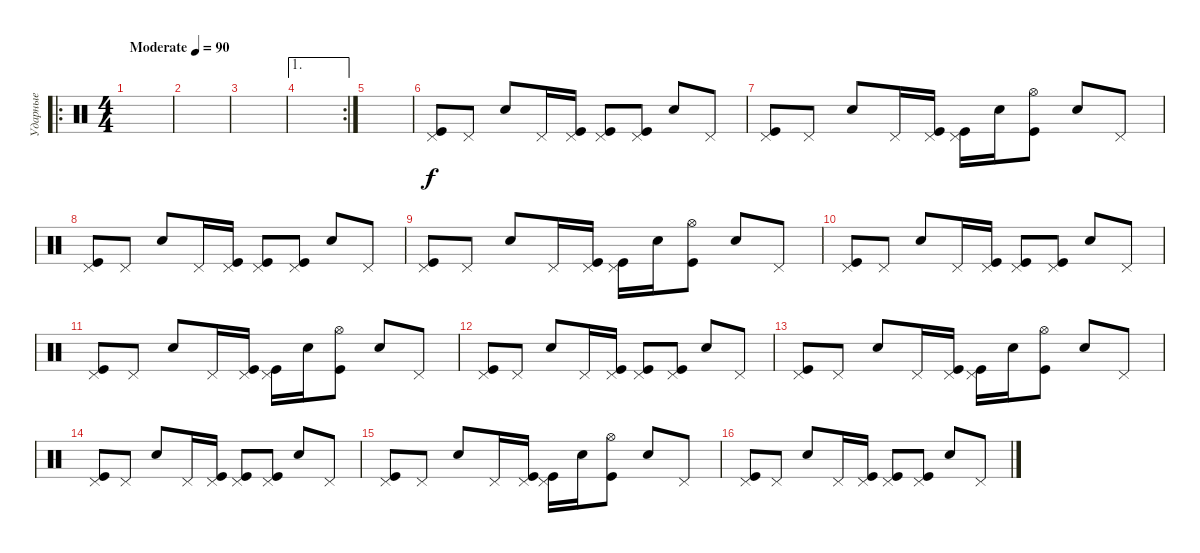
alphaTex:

\track ("Ударные" "Ударные") {instrument percussion}
\staff {score}
\articulation defaults
\ro
\ts (4 4)
\tempo (90 "Moderate")
\clef neutral
\ks c
|
|
|
\ae 1
\rc 2
|
|
("Kick (hit)" "Pedal Hi-Hat (hit)").8 "Pedal Hi-Hat (hit)".8 "Electric Snare (hit)".8 "Pedal Hi-Hat (hit)".16 ("Kick (hit)" "Pedal Hi-Hat (hit)").16 ("Kick (hit)" "Pedal Hi-Hat (hit)").8 ("Kick (hit)" "Pedal Hi-Hat (hit)").8 "Electric Snare (hit)".8 "Pedal Hi-Hat (hit)".8 |
("Kick (hit)" "Pedal Hi-Hat (hit)").8 "Pedal Hi-Hat (hit)".8 "Electric Snare (hit)".8 "Pedal Hi-Hat (hit)".16 ("Kick (hit)" "Pedal Hi-Hat (hit)").16 ("Kick (hit)" "Pedal Hi-Hat (hit)").16 "Electric Snare (hit)".16 ("Kick (hit)" "Hi-Hat (open)").8 "Electric Snare (hit)".8 "Pedal Hi-Hat (hit)".8 |
("Kick (hit)" "Pedal Hi-Hat (hit)").8 "Pedal Hi-Hat (hit)".8 "Electric Snare (hit)".8 "Pedal Hi-Hat (hit)".16 ("Kick (hit)" "Pedal Hi-Hat (hit)").16 ("Kick (hit)" "Pedal Hi-Hat (hit)").8 ("Kick (hit)" "Pedal Hi-Hat (hit)").8 "Electric Snare (hit)".8 "Pedal Hi-Hat (hit)".8 |
("Kick (hit)" "Pedal Hi-Hat (hit)").8 "Pedal Hi-Hat (hit)".8 "Electric Snare (hit)".8 "Pedal Hi-Hat (hit)".16 ("Kick (hit)" "Pedal Hi-Hat (hit)").16 ("Kick (hit)" "Pedal Hi-Hat (hit)").16 "Electric Snare (hit)".16 ("Kick (hit)" "Hi-Hat (open)").8 "Electric Snare (hit)".8 "Pedal Hi-Hat (hit)".8 |
("Kick (hit)" "Pedal Hi-Hat (hit)").8 "Pedal Hi-Hat (hit)".8 "Electric Snare (hit)".8 "Pedal Hi-Hat (hit)".16 ("Kick (hit)" "Pedal Hi-Hat (hit)").16 ("Kick (hit)" "Pedal Hi-Hat (hit)").8 ("Kick (hit)" "Pedal Hi-Hat (hit)").8 "Electric Snare (hit)".8 "Pedal Hi-Hat (hit)".8 |
("Kick (hit)" "Pedal Hi-Hat (hit)").8 "Pedal Hi-Hat (hit)".8 "Electric Snare (hit)".8 "Pedal Hi-Hat (hit)".16 ("Kick (hit)" "Pedal Hi-Hat (hit)").16 ("Kick (hit)" "Pedal Hi-Hat (hit)").16 "Electric Snare (hit)".16 ("Kick (hit)" "Hi-Hat (open)").8 "Electric Snare (hit)".8 "Pedal Hi-Hat (hit)".8 |
("Kick (hit)" "Pedal Hi-Hat (hit)").8 "Pedal Hi-Hat (hit)".8 "Electric Snare (hit)".8 "Pedal Hi-Hat (hit)".16 ("Kick (hit)" "Pedal Hi-Hat (hit)").16 ("Kick (hit)" "Pedal Hi-Hat (hit)").8 ("Kick (hit)" "Pedal Hi-Hat (hit)").8 "Electric Snare (hit)".8 "Pedal Hi-Hat (hit)".8 |
("Kick (hit)" "Pedal Hi-Hat (hit)").8 "Pedal Hi-Hat (hit)".8 "Electric Snare (hit)".8 "Pedal Hi-Hat (hit)".16 ("Kick (hit)" "Pedal Hi-Hat (hit)").16 ("Kick (hit)" "Pedal Hi-Hat (hit)").16 "Electric Snare (hit)".16 ("Kick (hit)" "Hi-Hat (open)").8 "Electric Snare (hit)".8 "Pedal Hi-Hat (hit)".8 |
("Kick (hit)" "Pedal Hi-Hat (hit)").8 "Pedal Hi-Hat (hit)".8 "Electric Snare (hit)".8 "Pedal Hi-Hat (hit)".16 ("Kick (hit)" "Pedal Hi-Hat (hit)").16 ("Kick (hit)" "Pedal Hi-Hat (hit)").8 ("Kick (hit)" "Pedal Hi-Hat (hit)").8 "Electric Snare (hit)".8 "Pedal Hi-Hat (hit)".8 |
("Kick (hit)" "Pedal Hi-Hat (hit)").8 "Pedal Hi-Hat (hit)".8 "Electric Snare (hit)".8 "Pedal Hi-Hat (hit)".16 ("Kick (hit)" "Pedal Hi-Hat (hit)").16 ("Kick (hit)" "Pedal Hi-Hat (hit)").16 "Electric Snare (hit)".16 ("Kick (hit)" "Hi-Hat (open)").8 "Electric Snare (hit)".8 "Pedal Hi-Hat (hit)".8 |
("Kick (hit)" "Pedal Hi-Hat (hit)").8 "Pedal Hi-Hat (hit)".8 "Electric Snare (hit)".8 "Pedal Hi-Hat (hit)".16 ("Kick (hit)" "Pedal Hi-Hat (hit)").16 ("Kick (hit)" "Pedal Hi-Hat (hit)").8 ("Kick (hit)" "Pedal Hi-Hat (hit)").8 "Electric Snare (hit)".8 "Pedal Hi-Hat (hit)".8
